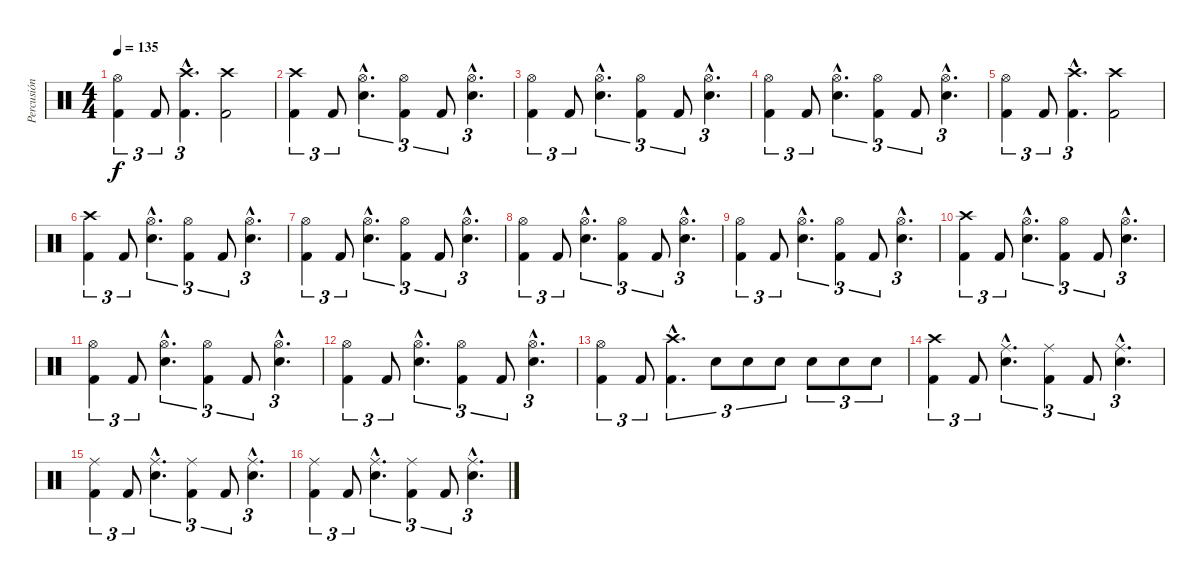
\track ("Percusión" "Percusión") {instrument percussion}
\staff {score}
\articulation defaults
\ts (4 4)
\tempo 135
\clef neutral
\ks c
("Hi-Hat (open)" "Kick (hit) 2").4{tu (3 2) dy f} "Kick (hit) 2".8{tu (3 2)} ("Crash high (hit)"{hac} "Kick (hit) 2"{hac}).4{d tu (3 2)} ("Crash high (hit)" "Kick (hit) 2").2 |
("Crash high (hit)" "Kick (hit) 2").4{tu (3 2)} "Kick (hit) 2".8{tu (3 2)} ("Hi-Hat (open)"{hac} "Snare (hit) 2"{hac}).4{d tu (3 2)} ("Hi-Hat (open)" "Kick (hit) 2").4{tu (3 2)} "Kick (hit) 2".8{tu (3 2)} ("Hi-Hat (open)"{hac} "Snare (hit) 2"{hac}).4{d tu (3 2)} |
("Hi-Hat (open)" "Kick (hit) 2").4{tu (3 2)} "Kick (hit) 2".8{tu (3 2)} ("Hi-Hat (open)"{hac} "Snare (hit) 2"{hac}).4{d tu (3 2)} ("Hi-Hat (open)" "Kick (hit) 2").4{tu (3 2)} "Kick (hit) 2".8{tu (3 2)} ("Hi-Hat (open)"{hac} "Snare (hit) 2"{hac}).4{d tu (3 2)} |
("Hi-Hat (open)" "Kick (hit) 2").4{tu (3 2)} "Kick (hit) 2".8{tu (3 2)} ("Hi-Hat (open)"{hac} "Snare (hit) 2"{hac}).4{d tu (3 2)} ("Hi-Hat (open)" "Kick (hit) 2").4{tu (3 2)} "Kick (hit) 2".8{tu (3 2)} ("Hi-Hat (open)"{hac} "Snare (hit) 2"{hac}).4{d tu (3 2)} |
("Hi-Hat (open)" "Kick (hit) 2").4{tu (3 2)} "Kick (hit) 2".8{tu (3 2)} ("Crash high (hit)"{hac} "Kick (hit) 2"{hac}).4{d tu (3 2)} ("Crash high (hit)" "Kick (hit) 2").2 |
("Crash high (hit)" "Kick (hit) 2").4{tu (3 2)} "Kick (hit) 2".8{tu (3 2)} ("Hi-Hat (open)"{hac} "Snare (hit) 2"{hac}).4{d tu (3 2)} ("Hi-Hat (open)" "Kick (hit) 2").4{tu (3 2)} "Kick (hit) 2".8{tu (3 2)} ("Hi-Hat (open)"{hac} "Snare (hit) 2"{hac}).4{d tu (3 2)} |
("Hi-Hat (open)" "Kick (hit) 2").4{tu (3 2)} "Kick (hit) 2".8{tu (3 2)} ("Hi-Hat (open)"{hac} "Snare (hit) 2"{hac}).4{d tu (3 2)} ("Hi-Hat (open)" "Kick (hit) 2").4{tu (3 2)} "Kick (hit) 2".8{tu (3 2)} ("Hi-Hat (open)"{hac} "Snare (hit) 2"{hac}).4{d tu (3 2)} |
("Hi-Hat (open)" "Kick (hit) 2").4{tu (3 2)} "Kick (hit) 2".8{tu (3 2)} ("Hi-Hat (open)"{hac} "Snare (hit) 2"{hac}).4{d tu (3 2)} ("Hi-Hat (open)" "Kick (hit) 2").4{tu (3 2)} "Kick (hit) 2".8{tu (3 2)} ("Hi-Hat (open)"{hac} "Snare (hit) 2"{hac}).4{d tu (3 2)} |
("Hi-Hat (open)" "Kick (hit) 2").4{tu (3 2)} "Kick (hit) 2".8{tu (3 2)} ("Hi-Hat (open)"{hac} "Snare (hit) 2"{hac}).4{d tu (3 2)} ("Hi-Hat (open)" "Kick (hit) 2").4{tu (3 2)} "Kick (hit) 2".8{tu (3 2)} ("Hi-Hat (open)"{hac} "Snare (hit) 2"{hac}).4{d tu (3 2)} |
("Crash high (hit)" "Kick (hit) 2").4{tu (3 2)} "Kick (hit) 2".8{tu (3 2)} ("Hi-Hat (open)"{hac} "Snare (hit) 2"{hac}).4{d tu (3 2)} ("Hi-Hat (open)" "Kick (hit) 2").4{tu (3 2)} "Kick (hit) 2".8{tu (3 2)} ("Hi-Hat (open)"{hac} "Snare (hit) 2"{hac}).4{d tu (3 2)} |
("Hi-Hat (open)" "Kick (hit) 2").4{tu (3 2)} "Kick (hit) 2".8{tu (3 2)} ("Hi-Hat (open)"{hac} "Snare (hit) 2"{hac}).4{d tu (3 2)} ("Hi-Hat (open)" "Kick (hit) 2").4{tu (3 2)} "Kick (hit) 2".8{tu (3 2)} ("Hi-Hat (open)"{hac} "Snare (hit) 2"{hac}).4{d tu (3 2)} |
("Hi-Hat (open)" "Kick (hit) 2").4{tu (3 2)} "Kick (hit) 2".8{tu (3 2)} ("Hi-Hat (open)"{hac} "Snare (hit) 2"{hac}).4{d tu (3 2)} ("Hi-Hat (open)" "Kick (hit) 2").4{tu (3 2)} "Kick (hit) 2".8{tu (3 2)} ("Hi-Hat (open)"{hac} "Snare (hit) 2"{hac}).4{d tu (3 2)} |
("Hi-Hat (open)" "Kick (hit) 2").4{tu (3 2)} "Kick (hit) 2".8{tu (3 2)} ("Crash high (hit)"{hac} "Kick (hit) 2"{hac}).4{d tu (3 2)} "Snare (hit) 2".8{tu (3 2)} "Snare (hit) 2".8{tu (3 2)} "Snare (hit) 2".8{tu (3 2)} "Snare (hit) 2".8{tu (3 2)} "Snare (hit) 2".8{tu (3 2)} "Snare (hit) 2".8{tu (3 2)} |
("Crash high (hit)" "Kick (hit) 2").4{tu (3 2)} "Kick (hit) 2".8{tu (3 2)} ("Ride (middle)"{hac} "Snare (hit) 2"{hac}).4{d tu (3 2)} ("Ride (middle)" "Kick (hit) 2").4{tu (3 2)} "Kick (hit) 2".8{tu (3 2)} ("Ride (middle)"{hac} "Snare (hit) 2"{hac}).4{d tu (3 2)} |
("Ride (middle)" "Kick (hit) 2").4{tu (3 2)} "Kick (hit) 2".8{tu (3 2)} ("Ride (middle)"{hac} "Snare (hit) 2"{hac}).4{d tu (3 2)} ("Ride (middle)" "Kick (hit) 2").4{tu (3 2)} "Kick (hit) 2".8{tu (3 2)} ("Ride (middle)"{hac} "Snare (hit) 2"{hac}).4{d tu (3 2)} |
("Ride (middle)" "Kick (hit) 2").4{tu (3 2)} "Kick (hit) 2".8{tu (3 2)} ("Ride (middle)"{hac} "Snare (hit) 2"{hac}).4{d tu (3 2)} ("Ride (middle)" "Kick (hit) 2").4{tu (3 2)} "Kick (hit) 2".8{tu (3 2)} ("Ride (middle)"{hac} "Snare (hit) 2"{hac}).4{d tu (3 2)}
